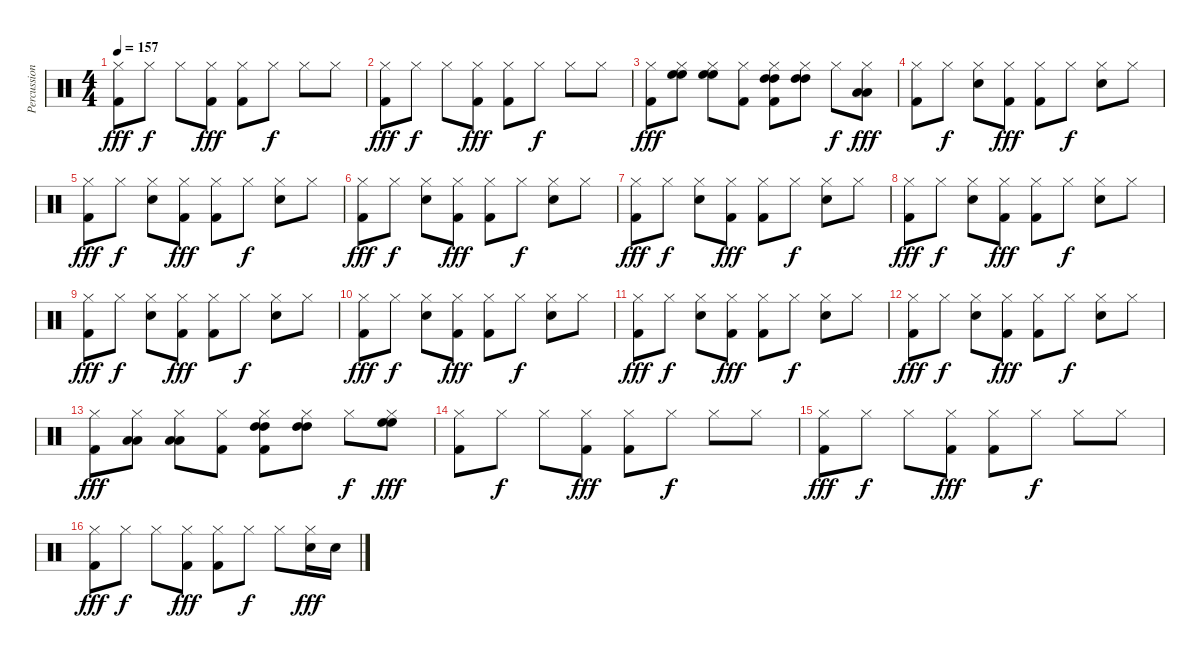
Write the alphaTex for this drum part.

\track ("Percussioni" "Percussion") {instrument percussion}
\staff {score}
\articulation defaults
\ts (4 4)
\tempo 157
\clef neutral
\ks c
("Hi-Hat (closed)" "Kick (hit) 2").8{dy fff} "Hi-Hat (closed)".8{dy f} "Hi-Hat (closed)".8 ("Hi-Hat (closed)" "Kick (hit) 2").8{dy fff} ("Hi-Hat (closed)" "Kick (hit) 2").8 "Hi-Hat (closed)".8{dy f} "Hi-Hat (closed)".8 "Hi-Hat (closed)".8 |
("Hi-Hat (closed)" "Kick (hit) 2").8{dy fff} "Hi-Hat (closed)".8{dy f} "Hi-Hat (closed)".8 ("Hi-Hat (closed)" "Kick (hit) 2").8{dy fff} ("Hi-Hat (closed)" "Kick (hit) 2").8 "Hi-Hat (closed)".8{dy f} "Hi-Hat (closed)".8 "Hi-Hat (closed)".8 |
("Hi-Hat (closed)" "Kick (hit) 2").8{dy fff} ("High Floor Tom (hit)" "High Floor Tom (hit)" "Hi-Hat (closed)").8 ("High Floor Tom (hit)" "High Floor Tom (hit)" "Hi-Hat (closed)").8 ("Hi-Hat (closed)" "Kick (hit) 2").8 ("High Tom (hit)" "High Tom (hit)" "Hi-Hat (closed)" "Kick (hit) 2").8 ("High Tom (hit)" "High Tom (hit)" "Hi-Hat (closed)").8 "Hi-Hat (closed)".8{dy f} ("Low Tom (hit)" "Low Tom (hit)" "Hi-Hat (closed)").8{dy fff} |
("Hi-Hat (closed)" "Kick (hit) 2").8 "Hi-Hat (closed)".8{dy f} ("Hi-Hat (closed)" "Snare (hit) 2").8 ("Hi-Hat (closed)" "Kick (hit) 2").8{dy fff} ("Hi-Hat (closed)" "Kick (hit) 2").8 "Hi-Hat (closed)".8{dy f} ("Hi-Hat (closed)" "Snare (hit) 2").8 "Hi-Hat (closed)".8 |
("Hi-Hat (closed)" "Kick (hit) 2").8{dy fff} "Hi-Hat (closed)".8{dy f} ("Hi-Hat (closed)" "Snare (hit) 2").8 ("Hi-Hat (closed)" "Kick (hit) 2").8{dy fff} ("Hi-Hat (closed)" "Kick (hit) 2").8 "Hi-Hat (closed)".8{dy f} ("Hi-Hat (closed)" "Snare (hit) 2").8 "Hi-Hat (closed)".8 |
("Hi-Hat (closed)" "Kick (hit) 2").8{dy fff} "Hi-Hat (closed)".8{dy f} ("Hi-Hat (closed)" "Snare (hit) 2").8 ("Hi-Hat (closed)" "Kick (hit) 2").8{dy fff} ("Hi-Hat (closed)" "Kick (hit) 2").8 "Hi-Hat (closed)".8{dy f} ("Hi-Hat (closed)" "Snare (hit) 2").8 "Hi-Hat (closed)".8 |
("Hi-Hat (closed)" "Kick (hit) 2").8{dy fff} "Hi-Hat (closed)".8{dy f} ("Hi-Hat (closed)" "Snare (hit) 2").8 ("Hi-Hat (closed)" "Kick (hit) 2").8{dy fff} ("Hi-Hat (closed)" "Kick (hit) 2").8 "Hi-Hat (closed)".8{dy f} ("Hi-Hat (closed)" "Snare (hit) 2").8 "Hi-Hat (closed)".8 |
("Hi-Hat (closed)" "Kick (hit) 2").8{dy fff} "Hi-Hat (closed)".8{dy f} ("Hi-Hat (closed)" "Snare (hit) 2").8 ("Hi-Hat (closed)" "Kick (hit) 2").8{dy fff} ("Hi-Hat (closed)" "Kick (hit) 2").8 "Hi-Hat (closed)".8{dy f} ("Hi-Hat (closed)" "Snare (hit) 2").8 "Hi-Hat (closed)".8 |
("Hi-Hat (closed)" "Kick (hit) 2").8{dy fff} "Hi-Hat (closed)".8{dy f} ("Hi-Hat (closed)" "Snare (hit) 2").8 ("Hi-Hat (closed)" "Kick (hit) 2").8{dy fff} ("Hi-Hat (closed)" "Kick (hit) 2").8 "Hi-Hat (closed)".8{dy f} ("Hi-Hat (closed)" "Snare (hit) 2").8 "Hi-Hat (closed)".8 |
("Hi-Hat (closed)" "Kick (hit) 2").8{dy fff} "Hi-Hat (closed)".8{dy f} ("Hi-Hat (closed)" "Snare (hit) 2").8 ("Hi-Hat (closed)" "Kick (hit) 2").8{dy fff} ("Hi-Hat (closed)" "Kick (hit) 2").8 "Hi-Hat (closed)".8{dy f} ("Hi-Hat (closed)" "Snare (hit) 2").8 "Hi-Hat (closed)".8 |
("Hi-Hat (closed)" "Kick (hit) 2").8{dy fff} "Hi-Hat (closed)".8{dy f} ("Hi-Hat (closed)" "Snare (hit) 2").8 ("Hi-Hat (closed)" "Kick (hit) 2").8{dy fff} ("Hi-Hat (closed)" "Kick (hit) 2").8 "Hi-Hat (closed)".8{dy f} ("Hi-Hat (closed)" "Snare (hit) 2").8 "Hi-Hat (closed)".8 |
("Hi-Hat (closed)" "Kick (hit) 2").8{dy fff} "Hi-Hat (closed)".8{dy f} ("Hi-Hat (closed)" "Snare (hit) 2").8 ("Hi-Hat (closed)" "Kick (hit) 2").8{dy fff} ("Hi-Hat (closed)" "Kick (hit) 2").8 "Hi-Hat (closed)".8{dy f} ("Hi-Hat (closed)" "Snare (hit) 2").8 "Hi-Hat (closed)".8 |
("Hi-Hat (closed)" "Kick (hit) 2").8{dy fff} ("Low Tom (hit)" "Low Tom (hit)" "Hi-Hat (closed)").8 ("Low Tom (hit)" "Low Tom (hit)" "Hi-Hat (closed)").8 ("Hi-Hat (closed)" "Kick (hit) 2").8 ("High Tom (hit)" "High Tom (hit)" "Hi-Hat (closed)" "Kick (hit) 2").8 ("High Tom (hit)" "High Tom (hit)" "Hi-Hat (closed)").8 "Hi-Hat (closed)".8{dy f} ("High Floor Tom (hit)" "High Floor Tom (hit)" "Hi-Hat (closed)").8{dy fff} |
("Hi-Hat (closed)" "Kick (hit) 2").8 "Hi-Hat (closed)".8{dy f} "Hi-Hat (closed)".8 ("Hi-Hat (closed)" "Kick (hit) 2").8{dy fff} ("Hi-Hat (closed)" "Kick (hit) 2").8 "Hi-Hat (closed)".8{dy f} "Hi-Hat (closed)".8 "Hi-Hat (closed)".8 |
("Hi-Hat (closed)" "Kick (hit) 2").8{dy fff} "Hi-Hat (closed)".8{dy f} "Hi-Hat (closed)".8 ("Hi-Hat (closed)" "Kick (hit) 2").8{dy fff} ("Hi-Hat (closed)" "Kick (hit) 2").8 "Hi-Hat (closed)".8{dy f} "Hi-Hat (closed)".8 "Hi-Hat (closed)".8 |
("Hi-Hat (closed)" "Kick (hit) 2").8{dy fff} "Hi-Hat (closed)".8{dy f} "Hi-Hat (closed)".8 ("Hi-Hat (closed)" "Kick (hit) 2").8{dy fff} ("Hi-Hat (closed)" "Kick (hit) 2").8 "Hi-Hat (closed)".8{dy f} "Hi-Hat (closed)".8 ("Hi-Hat (closed)" "Snare (hit) 2").16{dy fff} "Snare (hit) 2".16
